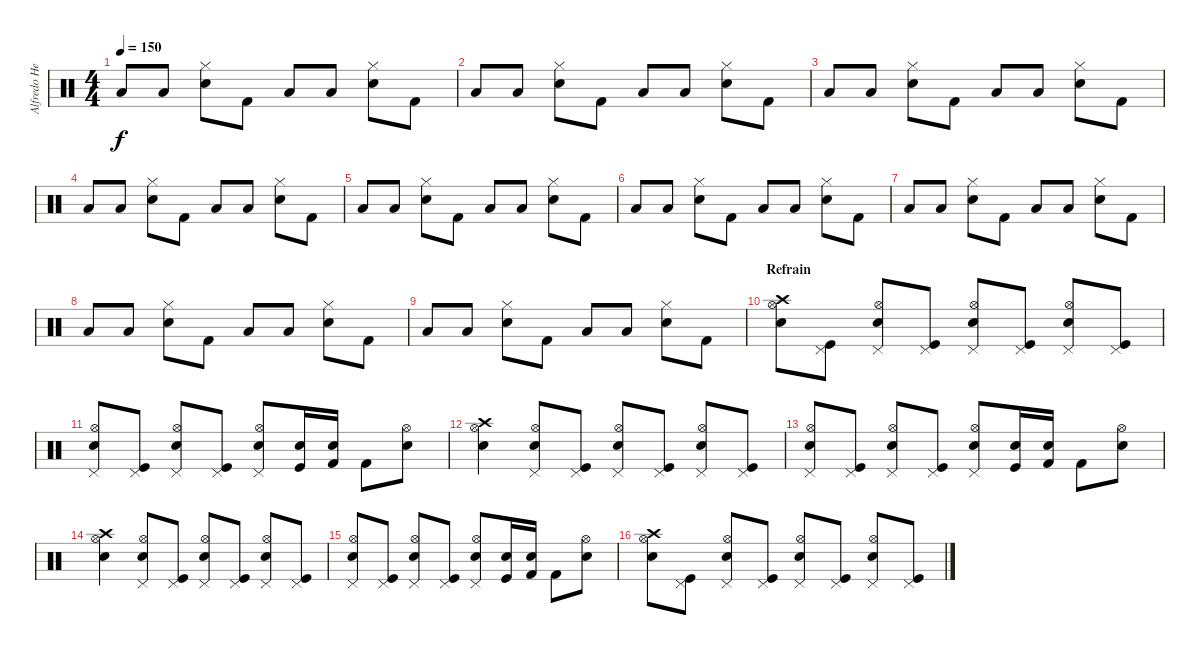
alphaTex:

\track ("Alfredo Hernandez" "Alfredo He") {instrument percussion}
\staff {score}
\articulation defaults
\ts (4 4)
\tempo 150
\clef neutral
\ks c "Low Tom (hit)".8{dy f} "Low Tom (hit)".8
("Snare (hit) 2" "Hi-Hat (closed)").8 "Kick (hit) 2".8 "Low Tom (hit)".8 "Low Tom (hit)".8 ("Snare (hit) 2" "Hi-Hat (closed)").8 "Kick (hit) 2".8 |
"Low Tom (hit)".8 "Low Tom (hit)".8 ("Snare (hit) 2" "Hi-Hat (closed)").8 "Kick (hit) 2".8 "Low Tom (hit)".8 "Low Tom (hit)".8 ("Snare (hit) 2" "Hi-Hat (closed)").8 "Kick (hit) 2".8 |
"Low Tom (hit)".8 "Low Tom (hit)".8 ("Snare (hit) 2" "Hi-Hat (closed)").8 "Kick (hit) 2".8 "Low Tom (hit)".8 "Low Tom (hit)".8 ("Snare (hit) 2" "Hi-Hat (closed)").8 "Kick (hit) 2".8 |
"Low Tom (hit)".8 "Low Tom (hit)".8 ("Snare (hit) 2" "Hi-Hat (closed)").8 "Kick (hit) 2".8 "Low Tom (hit)".8 "Low Tom (hit)".8 ("Snare (hit) 2" "Hi-Hat (closed)").8 "Kick (hit) 2".8 |
"Low Tom (hit)".8 "Low Tom (hit)".8 ("Snare (hit) 2" "Hi-Hat (closed)").8 "Kick (hit) 2".8 "Low Tom (hit)".8 "Low Tom (hit)".8 ("Snare (hit) 2" "Hi-Hat (closed)").8 "Kick (hit) 2".8 |
"Low Tom (hit)".8 "Low Tom (hit)".8 ("Snare (hit) 2" "Hi-Hat (closed)").8 "Kick (hit) 2".8 "Low Tom (hit)".8 "Low Tom (hit)".8 ("Snare (hit) 2" "Hi-Hat (closed)").8 "Kick (hit) 2".8 |
"Low Tom (hit)".8 "Low Tom (hit)".8 ("Snare (hit) 2" "Hi-Hat (closed)").8 "Kick (hit) 2".8 "Low Tom (hit)".8 "Low Tom (hit)".8 ("Snare (hit) 2" "Hi-Hat (closed)").8 "Kick (hit) 2".8 |
"Low Tom (hit)".8 "Low Tom (hit)".8 ("Snare (hit) 2" "Hi-Hat (closed)").8 "Kick (hit) 2".8 "Low Tom (hit)".8 "Low Tom (hit)".8 ("Snare (hit) 2" "Hi-Hat (closed)").8 "Kick (hit) 2".8 |
"Low Tom (hit)".8 "Low Tom (hit)".8 ("Snare (hit) 2" "Hi-Hat (closed)").8 "Kick (hit) 2".8 "Low Tom (hit)".8 "Low Tom (hit)".8 ("Snare (hit) 2" "Hi-Hat (closed)").8 "Kick (hit) 2".8 |
\section ("" "Refrain")
("Electric Snare (hit)" "Crash high (hit)" "Hi-Hat (open)").8 ("Kick (hit)" "Pedal Hi-Hat (hit)").8 ("Electric Snare (hit)" "Pedal Hi-Hat (hit)" "Hi-Hat (open)").8 ("Kick (hit)" "Pedal Hi-Hat (hit)").8 ("Electric Snare (hit)" "Pedal Hi-Hat (hit)" "Hi-Hat (open)").8 ("Kick (hit)" "Pedal Hi-Hat (hit)").8 ("Electric Snare (hit)" "Pedal Hi-Hat (hit)" "Hi-Hat (open)").8 ("Kick (hit)" "Pedal Hi-Hat (hit)").8 |
("Electric Snare (hit)" "Pedal Hi-Hat (hit)" "Hi-Hat (open)").8 ("Kick (hit)" "Pedal Hi-Hat (hit)").8 ("Electric Snare (hit)" "Pedal Hi-Hat (hit)" "Hi-Hat (open)").8 ("Kick (hit)" "Pedal Hi-Hat (hit)").8 ("Electric Snare (hit)" "Pedal Hi-Hat (hit)" "Hi-Hat (open)").8 ("Kick (hit)" "Electric Snare (hit)").16 ("Kick (hit) 2" "Electric Snare (hit)").16 "Kick (hit) 2".8 ("Electric Snare (hit)" "Hi-Hat (open)").8 |
("Electric Snare (hit)" "Crash high (hit)" "Hi-Hat (open)").4 ("Electric Snare (hit)" "Pedal Hi-Hat (hit)" "Hi-Hat (open)").8 ("Kick (hit)" "Pedal Hi-Hat (hit)").8 ("Electric Snare (hit)" "Pedal Hi-Hat (hit)" "Hi-Hat (open)").8 ("Kick (hit)" "Pedal Hi-Hat (hit)").8 ("Electric Snare (hit)" "Pedal Hi-Hat (hit)" "Hi-Hat (open)").8 ("Kick (hit)" "Pedal Hi-Hat (hit)").8 |
("Electric Snare (hit)" "Pedal Hi-Hat (hit)" "Hi-Hat (open)").8 ("Kick (hit)" "Pedal Hi-Hat (hit)").8 ("Electric Snare (hit)" "Pedal Hi-Hat (hit)" "Hi-Hat (open)").8 ("Kick (hit)" "Pedal Hi-Hat (hit)").8 ("Electric Snare (hit)" "Pedal Hi-Hat (hit)" "Hi-Hat (open)").8 ("Kick (hit)" "Electric Snare (hit)").16 ("Kick (hit) 2" "Electric Snare (hit)").16 "Kick (hit) 2".8 ("Electric Snare (hit)" "Hi-Hat (open)").8 |
("Electric Snare (hit)" "Crash high (hit)" "Hi-Hat (open)").4 ("Electric Snare (hit)" "Pedal Hi-Hat (hit)" "Hi-Hat (open)").8 ("Kick (hit)" "Pedal Hi-Hat (hit)").8 ("Electric Snare (hit)" "Pedal Hi-Hat (hit)" "Hi-Hat (open)").8 ("Kick (hit)" "Pedal Hi-Hat (hit)").8 ("Electric Snare (hit)" "Pedal Hi-Hat (hit)" "Hi-Hat (open)").8 ("Kick (hit)" "Pedal Hi-Hat (hit)").8 |
("Electric Snare (hit)" "Pedal Hi-Hat (hit)" "Hi-Hat (open)").8 ("Kick (hit)" "Pedal Hi-Hat (hit)").8 ("Electric Snare (hit)" "Pedal Hi-Hat (hit)" "Hi-Hat (open)").8 ("Kick (hit)" "Pedal Hi-Hat (hit)").8 ("Electric Snare (hit)" "Pedal Hi-Hat (hit)" "Hi-Hat (open)").8 ("Kick (hit)" "Electric Snare (hit)").16 ("Kick (hit) 2" "Electric Snare (hit)").16 "Kick (hit) 2".8 ("Electric Snare (hit)" "Hi-Hat (open)").8 |
("Electric Snare (hit)" "Crash high (hit)" "Hi-Hat (open)").8 ("Kick (hit)" "Pedal Hi-Hat (hit)").8 ("Electric Snare (hit)" "Pedal Hi-Hat (hit)" "Hi-Hat (open)").8 ("Kick (hit)" "Pedal Hi-Hat (hit)").8 ("Electric Snare (hit)" "Pedal Hi-Hat (hit)" "Hi-Hat (open)").8 ("Kick (hit)" "Pedal Hi-Hat (hit)").8 ("Electric Snare (hit)" "Pedal Hi-Hat (hit)" "Hi-Hat (open)").8 ("Kick (hit)" "Pedal Hi-Hat (hit)").8
